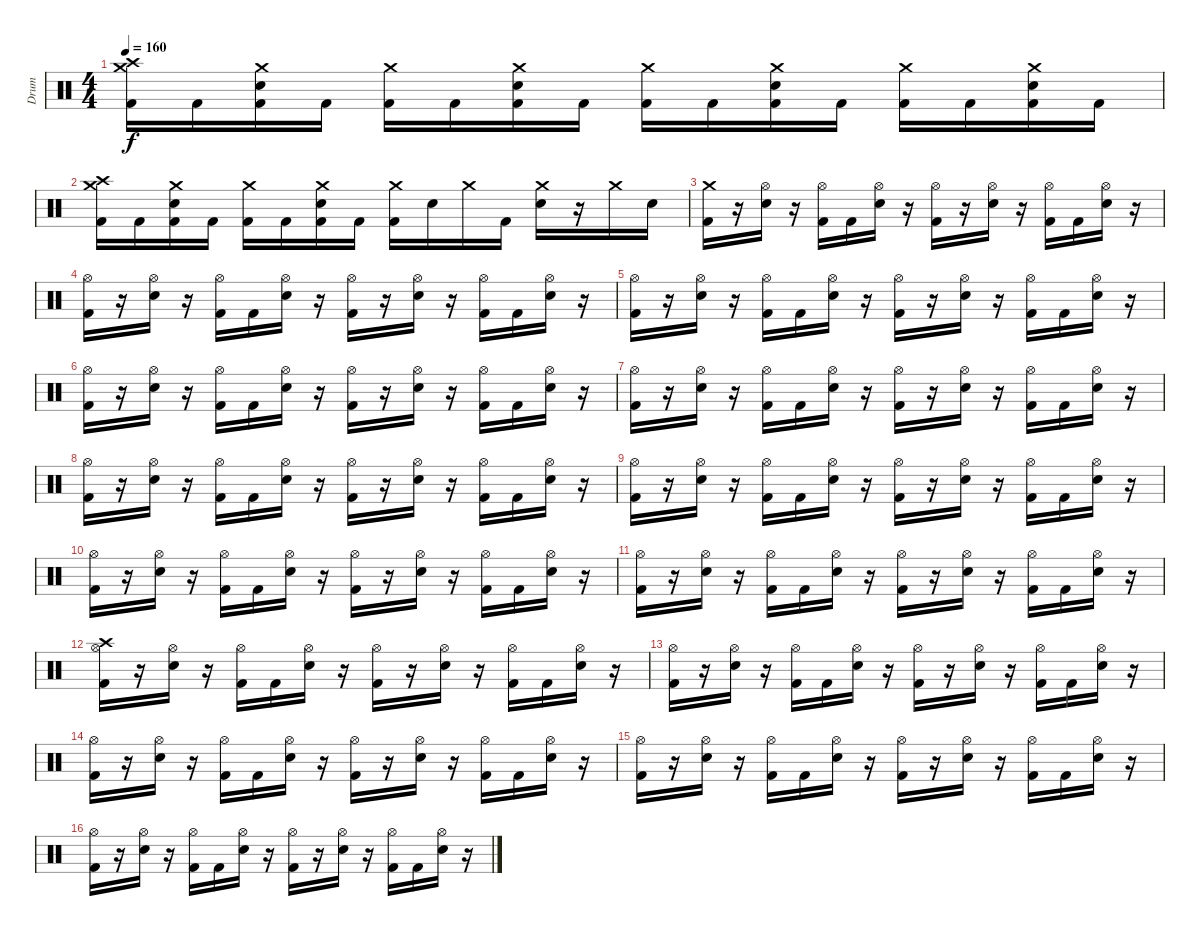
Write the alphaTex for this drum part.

\track ("Drum" "Drum") {instrument percussion}
\staff {score}
\articulation defaults
\ts (4 4)
\tempo 160
\clef neutral
\ks c
("Crash high (hit)" "Crash medium (hit)" "Kick (hit) 2").16{dy f} "Kick (hit) 2".16 ("Crash medium (hit)" "Kick (hit) 2" "Electric Snare (hit)").16 "Kick (hit) 2".16 ("Crash medium (hit)" "Kick (hit) 2").16 "Kick (hit) 2".16 ("Crash medium (hit)" "Kick (hit) 2" "Electric Snare (hit)").16 "Kick (hit) 2".16 ("Crash medium (hit)" "Kick (hit) 2").16 "Kick (hit) 2".16 ("Crash medium (hit)" "Kick (hit) 2" "Electric Snare (hit)").16 "Kick (hit) 2".16 ("Crash medium (hit)" "Kick (hit) 2").16 "Kick (hit) 2".16 ("Crash medium (hit)" "Kick (hit) 2" "Electric Snare (hit)").16 "Kick (hit) 2".16 |
("Crash high (hit)" "Crash medium (hit)" "Kick (hit) 2").16 "Kick (hit) 2".16 ("Crash medium (hit)" "Kick (hit) 2" "Electric Snare (hit)").16 "Kick (hit) 2".16 ("Crash medium (hit)" "Kick (hit) 2").16 "Kick (hit) 2".16 ("Crash medium (hit)" "Kick (hit) 2" "Electric Snare (hit)").16 "Kick (hit) 2".16 ("Crash medium (hit)" "Kick (hit) 2").16 "Electric Snare (hit)".16 "Crash medium (hit)".16 "Kick (hit) 2".16 ("Crash medium (hit)" "Electric Snare (hit)").16 r.16 "Crash medium (hit)".16 "Electric Snare (hit)".16 |
("Crash medium (hit)" "Kick (hit) 2").16 r.16 ("Hi-Hat (open)" "Electric Snare (hit)").16 r.16 ("Hi-Hat (open)" "Kick (hit) 2").16 "Kick (hit) 2".16 ("Hi-Hat (open)" "Electric Snare (hit)").16 r.16 ("Hi-Hat (open)" "Kick (hit) 2").16 r.16 ("Hi-Hat (open)" "Electric Snare (hit)").16 r.16 ("Hi-Hat (open)" "Kick (hit) 2").16 "Kick (hit) 2".16 ("Hi-Hat (open)" "Electric Snare (hit)").16 r.16 |
("Hi-Hat (open)" "Kick (hit) 2").16 r.16 ("Hi-Hat (open)" "Electric Snare (hit)").16 r.16 ("Hi-Hat (open)" "Kick (hit) 2").16 "Kick (hit) 2".16 ("Hi-Hat (open)" "Electric Snare (hit)").16 r.16 ("Hi-Hat (open)" "Kick (hit) 2").16 r.16 ("Hi-Hat (open)" "Electric Snare (hit)").16 r.16 ("Hi-Hat (open)" "Kick (hit) 2").16 "Kick (hit) 2".16 ("Hi-Hat (open)" "Electric Snare (hit)").16 r.16 |
("Hi-Hat (open)" "Kick (hit) 2").16 r.16 ("Hi-Hat (open)" "Electric Snare (hit)").16 r.16 ("Hi-Hat (open)" "Kick (hit) 2").16 "Kick (hit) 2".16 ("Hi-Hat (open)" "Electric Snare (hit)").16 r.16 ("Hi-Hat (open)" "Kick (hit) 2").16 r.16 ("Hi-Hat (open)" "Electric Snare (hit)").16 r.16 ("Hi-Hat (open)" "Kick (hit) 2").16 "Kick (hit) 2".16 ("Hi-Hat (open)" "Electric Snare (hit)").16 r.16 |
("Hi-Hat (open)" "Kick (hit) 2").16 r.16 ("Hi-Hat (open)" "Electric Snare (hit)").16 r.16 ("Hi-Hat (open)" "Kick (hit) 2").16 "Kick (hit) 2".16 ("Hi-Hat (open)" "Electric Snare (hit)").16 r.16 ("Hi-Hat (open)" "Kick (hit) 2").16 r.16 ("Hi-Hat (open)" "Electric Snare (hit)").16 r.16 ("Hi-Hat (open)" "Kick (hit) 2").16 "Kick (hit) 2".16 ("Hi-Hat (open)" "Electric Snare (hit)").16 r.16 |
("Hi-Hat (open)" "Kick (hit) 2").16 r.16 ("Hi-Hat (open)" "Electric Snare (hit)").16 r.16 ("Hi-Hat (open)" "Kick (hit) 2").16 "Kick (hit) 2".16 ("Hi-Hat (open)" "Electric Snare (hit)").16 r.16 ("Hi-Hat (open)" "Kick (hit) 2").16 r.16 ("Hi-Hat (open)" "Electric Snare (hit)").16 r.16 ("Hi-Hat (open)" "Kick (hit) 2").16 "Kick (hit) 2".16 ("Hi-Hat (open)" "Electric Snare (hit)").16 r.16 |
("Hi-Hat (open)" "Kick (hit) 2").16 r.16 ("Hi-Hat (open)" "Electric Snare (hit)").16 r.16 ("Hi-Hat (open)" "Kick (hit) 2").16 "Kick (hit) 2".16 ("Hi-Hat (open)" "Electric Snare (hit)").16 r.16 ("Hi-Hat (open)" "Kick (hit) 2").16 r.16 ("Hi-Hat (open)" "Electric Snare (hit)").16 r.16 ("Hi-Hat (open)" "Kick (hit) 2").16 "Kick (hit) 2".16 ("Hi-Hat (open)" "Electric Snare (hit)").16 r.16 |
("Hi-Hat (open)" "Kick (hit) 2").16 r.16 ("Hi-Hat (open)" "Electric Snare (hit)").16 r.16 ("Hi-Hat (open)" "Kick (hit) 2").16 "Kick (hit) 2".16 ("Hi-Hat (open)" "Electric Snare (hit)").16 r.16 ("Hi-Hat (open)" "Kick (hit) 2").16 r.16 ("Hi-Hat (open)" "Electric Snare (hit)").16 r.16 ("Hi-Hat (open)" "Kick (hit) 2").16 "Kick (hit) 2".16 ("Hi-Hat (open)" "Electric Snare (hit)").16 r.16 |
("Hi-Hat (open)" "Kick (hit) 2").16 r.16 ("Hi-Hat (open)" "Electric Snare (hit)").16 r.16 ("Hi-Hat (open)" "Kick (hit) 2").16 "Kick (hit) 2".16 ("Hi-Hat (open)" "Electric Snare (hit)").16 r.16 ("Hi-Hat (open)" "Kick (hit) 2").16 r.16 ("Hi-Hat (open)" "Electric Snare (hit)").16 r.16 ("Hi-Hat (open)" "Kick (hit) 2").16 "Kick (hit) 2".16 ("Hi-Hat (open)" "Electric Snare (hit)").16 r.16 |
("Hi-Hat (open)" "Kick (hit) 2").16 r.16 ("Hi-Hat (open)" "Electric Snare (hit)").16 r.16 ("Hi-Hat (open)" "Kick (hit) 2").16 "Kick (hit) 2".16 ("Hi-Hat (open)" "Electric Snare (hit)").16 r.16 ("Hi-Hat (open)" "Kick (hit) 2").16 r.16 ("Hi-Hat (open)" "Electric Snare (hit)").16 r.16 ("Hi-Hat (open)" "Kick (hit) 2").16 "Kick (hit) 2".16 ("Hi-Hat (open)" "Electric Snare (hit)").16 r.16 |
("Crash high (hit)" "Hi-Hat (open)" "Kick (hit) 2").16 r.16 ("Hi-Hat (open)" "Electric Snare (hit)").16 r.16 ("Hi-Hat (open)" "Kick (hit) 2").16 "Kick (hit) 2".16 ("Hi-Hat (open)" "Electric Snare (hit)").16 r.16 ("Hi-Hat (open)" "Kick (hit) 2").16 r.16 ("Hi-Hat (open)" "Electric Snare (hit)").16 r.16 ("Hi-Hat (open)" "Kick (hit) 2").16 "Kick (hit) 2".16 ("Hi-Hat (open)" "Electric Snare (hit)").16 r.16 |
("Hi-Hat (open)" "Kick (hit) 2").16 r.16 ("Hi-Hat (open)" "Electric Snare (hit)").16 r.16 ("Hi-Hat (open)" "Kick (hit) 2").16 "Kick (hit) 2".16 ("Hi-Hat (open)" "Electric Snare (hit)").16 r.16 ("Hi-Hat (open)" "Kick (hit) 2").16 r.16 ("Hi-Hat (open)" "Electric Snare (hit)").16 r.16 ("Hi-Hat (open)" "Kick (hit) 2").16 "Kick (hit) 2".16 ("Hi-Hat (open)" "Electric Snare (hit)").16 r.16 |
("Hi-Hat (open)" "Kick (hit) 2").16 r.16 ("Hi-Hat (open)" "Electric Snare (hit)").16 r.16 ("Hi-Hat (open)" "Kick (hit) 2").16 "Kick (hit) 2".16 ("Hi-Hat (open)" "Electric Snare (hit)").16 r.16 ("Hi-Hat (open)" "Kick (hit) 2").16 r.16 ("Hi-Hat (open)" "Electric Snare (hit)").16 r.16 ("Hi-Hat (open)" "Kick (hit) 2").16 "Kick (hit) 2".16 ("Hi-Hat (open)" "Electric Snare (hit)").16 r.16 |
("Hi-Hat (open)" "Kick (hit) 2").16 r.16 ("Hi-Hat (open)" "Electric Snare (hit)").16 r.16 ("Hi-Hat (open)" "Kick (hit) 2").16 "Kick (hit) 2".16 ("Hi-Hat (open)" "Electric Snare (hit)").16 r.16 ("Hi-Hat (open)" "Kick (hit) 2").16 r.16 ("Hi-Hat (open)" "Electric Snare (hit)").16 r.16 ("Hi-Hat (open)" "Kick (hit) 2").16 "Kick (hit) 2".16 ("Hi-Hat (open)" "Electric Snare (hit)").16 r.16 |
("Hi-Hat (open)" "Kick (hit) 2").16 r.16 ("Hi-Hat (open)" "Electric Snare (hit)").16 r.16 ("Hi-Hat (open)" "Kick (hit) 2").16 "Kick (hit) 2".16 ("Hi-Hat (open)" "Electric Snare (hit)").16 r.16 ("Hi-Hat (open)" "Kick (hit) 2").16 r.16 ("Hi-Hat (open)" "Electric Snare (hit)").16 r.16 ("Hi-Hat (open)" "Kick (hit) 2").16 "Kick (hit) 2".16 ("Hi-Hat (open)" "Electric Snare (hit)").16 r.16
